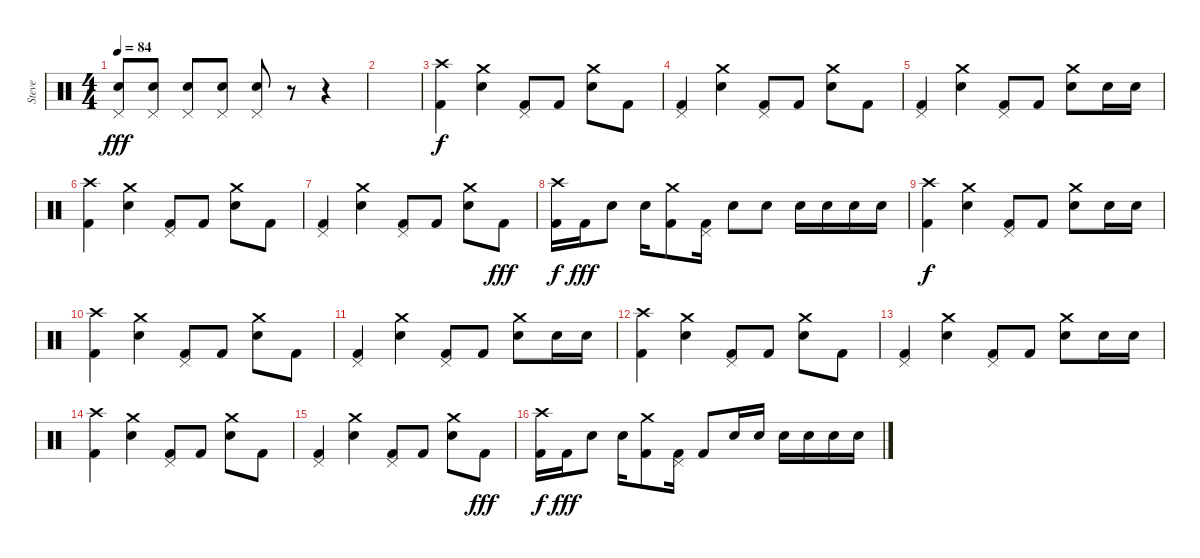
\track ("Steve" "Steve") {instrument percussion}
\staff {score}
\articulation defaults
\ts (4 4)
\tempo 84
\clef neutral
\ks c
("Pedal Hi-Hat (hit)" "Snare (hit) 2").8{dy fff} ("Pedal Hi-Hat (hit)" "Snare (hit) 2").8 ("Pedal Hi-Hat (hit)" "Snare (hit) 2").8 ("Pedal Hi-Hat (hit)" "Snare (hit) 2").8 ("Pedal Hi-Hat (hit)" "Snare (hit) 2").8 r.8 r.4 |
|
("Crash high (hit)" "Kick (hit) 2").4{dy f} ("Crash medium (hit)" "Snare (hit) 2").4 ("Pedal Hi-Hat (hit)" "Kick (hit) 2").8 "Kick (hit) 2".8 ("Crash medium (hit)" "Snare (hit) 2").8 "Kick (hit) 2".8 |
("Pedal Hi-Hat (hit)" "Kick (hit) 2").4 ("Crash medium (hit)" "Snare (hit) 2").4 ("Pedal Hi-Hat (hit)" "Kick (hit) 2").8 "Kick (hit) 2".8 ("Crash medium (hit)" "Snare (hit) 2").8 "Kick (hit) 2".8 |
("Pedal Hi-Hat (hit)" "Kick (hit) 2").4 ("Crash medium (hit)" "Snare (hit) 2").4 ("Pedal Hi-Hat (hit)" "Kick (hit) 2").8 "Kick (hit) 2".8 ("Crash medium (hit)" "Snare (hit) 2").8 "Snare (hit) 2".16 "Snare (hit) 2".16 |
("Crash high (hit)" "Kick (hit) 2").4 ("Crash medium (hit)" "Snare (hit) 2").4 ("Pedal Hi-Hat (hit)" "Kick (hit) 2").8 "Kick (hit) 2".8 ("Crash medium (hit)" "Snare (hit) 2").8 "Kick (hit) 2".8 |
("Pedal Hi-Hat (hit)" "Kick (hit) 2").4 ("Crash medium (hit)" "Snare (hit) 2").4 ("Pedal Hi-Hat (hit)" "Kick (hit) 2").8 "Kick (hit) 2".8 ("Crash medium (hit)" "Snare (hit) 2").8 "Kick (hit) 2".8{dy fff} |
("Crash high (hit)" "Kick (hit) 2").16{dy f} "Kick (hit) 2".16{dy fff} "Snare (hit) 2".8 "Snare (hit) 2".16 ("Crash medium (hit)" "Kick (hit) 2").8 ("Pedal Hi-Hat (hit)" "Kick (hit) 2").16 "Snare (hit) 2".8 "Snare (hit) 2".8 "Snare (hit) 2".16 "Snare (hit) 2".16 "Snare (hit) 2".16 "Snare (hit) 2".16 |
("Crash high (hit)" "Kick (hit) 2").4{dy f} ("Crash medium (hit)" "Snare (hit) 2").4 ("Pedal Hi-Hat (hit)" "Kick (hit) 2").8 "Kick (hit) 2".8 ("Crash medium (hit)" "Snare (hit) 2").8 "Snare (hit) 2".16 "Snare (hit) 2".16 |
("Crash high (hit)" "Kick (hit) 2").4 ("Crash medium (hit)" "Snare (hit) 2").4 ("Pedal Hi-Hat (hit)" "Kick (hit) 2").8 "Kick (hit) 2".8 ("Crash medium (hit)" "Snare (hit) 2").8 "Kick (hit) 2".8 |
("Pedal Hi-Hat (hit)" "Kick (hit) 2").4 ("Crash medium (hit)" "Snare (hit) 2").4 ("Pedal Hi-Hat (hit)" "Kick (hit) 2").8 "Kick (hit) 2".8 ("Crash medium (hit)" "Snare (hit) 2").8 "Snare (hit) 2".16 "Snare (hit) 2".16 |
("Crash high (hit)" "Kick (hit) 2").4 ("Crash medium (hit)" "Snare (hit) 2").4 ("Pedal Hi-Hat (hit)" "Kick (hit) 2").8 "Kick (hit) 2".8 ("Crash medium (hit)" "Snare (hit) 2").8 "Kick (hit) 2".8 |
("Pedal Hi-Hat (hit)" "Kick (hit) 2").4 ("Crash medium (hit)" "Snare (hit) 2").4 ("Pedal Hi-Hat (hit)" "Kick (hit) 2").8 "Kick (hit) 2".8 ("Crash medium (hit)" "Snare (hit) 2").8 "Snare (hit) 2".16 "Snare (hit) 2".16 |
("Crash high (hit)" "Kick (hit) 2").4 ("Crash medium (hit)" "Snare (hit) 2").4 ("Pedal Hi-Hat (hit)" "Kick (hit) 2").8 "Kick (hit) 2".8 ("Crash medium (hit)" "Snare (hit) 2").8 "Kick (hit) 2".8 |
("Pedal Hi-Hat (hit)" "Kick (hit) 2").4{volume 1} ("Crash medium (hit)" "Snare (hit) 2").4 ("Pedal Hi-Hat (hit)" "Kick (hit) 2").8 "Kick (hit) 2".8 ("Crash medium (hit)" "Snare (hit) 2").8 "Kick (hit) 2".8{dy fff} |
("Crash high (hit)" "Kick (hit) 2").16{dy f} "Kick (hit) 2".16{dy fff} "Snare (hit) 2".8 "Snare (hit) 2".16 ("Crash medium (hit)" "Kick (hit) 2").8 ("Pedal Hi-Hat (hit)" "Kick (hit) 2").16 "Kick (hit) 2".8 "Snare (hit) 2".16 "Snare (hit) 2".16 "Snare (hit) 2".16 "Snare (hit) 2".16 "Snare (hit) 2".16 "Snare (hit) 2".16
